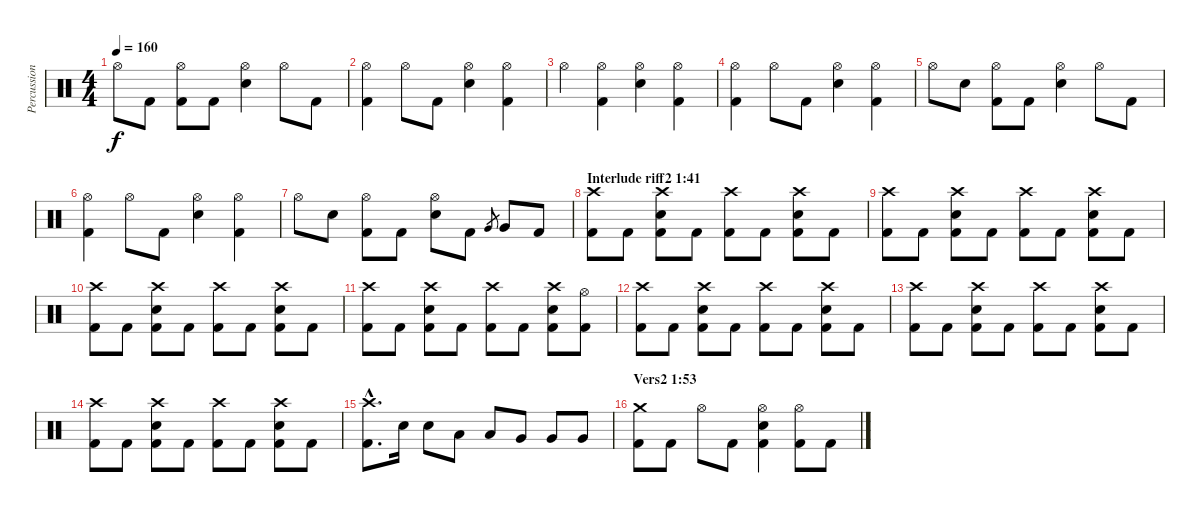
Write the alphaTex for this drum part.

\track ("Percussion" "Percussion") {instrument percussion}
\staff {score}
\articulation defaults
\ts (4 4)
\tempo 160
\clef neutral
\ks c "Hi-Hat (open)".8{dy f} "Kick (hit) 2".8
("Hi-Hat (open)" "Kick (hit) 2").8 "Kick (hit) 2".8 ("Hi-Hat (open)" "Snare (hit) 2").4 "Hi-Hat (open)".8 "Kick (hit) 2".8 |
("Hi-Hat (open)" "Kick (hit) 2").4 "Hi-Hat (open)".8 "Kick (hit) 2".8 ("Hi-Hat (open)" "Snare (hit) 2").4 ("Hi-Hat (open)" "Kick (hit) 2").4 |
"Hi-Hat (open)".4 ("Hi-Hat (open)" "Kick (hit) 2").4 ("Hi-Hat (open)" "Snare (hit) 2").4 ("Hi-Hat (open)" "Kick (hit) 2").4 |
("Hi-Hat (open)" "Kick (hit) 2").4 "Hi-Hat (open)".8 "Kick (hit) 2".8 ("Hi-Hat (open)" "Snare (hit) 2").4 ("Hi-Hat (open)" "Kick (hit) 2").4 |
"Hi-Hat (open)".8 "Snare (hit) 2".8 ("Hi-Hat (open)" "Kick (hit) 2").8 "Kick (hit) 2".8 ("Hi-Hat (open)" "Snare (hit) 2").4 "Hi-Hat (open)".8 "Kick (hit) 2".8 |
("Hi-Hat (open)" "Kick (hit) 2").4 "Hi-Hat (open)".8 "Kick (hit) 2".8 ("Hi-Hat (open)" "Snare (hit) 2").4 ("Hi-Hat (open)" "Kick (hit) 2").4 |
"Hi-Hat (open)".8 "Snare (hit) 2".8 ("Hi-Hat (open)" "Kick (hit) 2").8 "Kick (hit) 2".8 ("Hi-Hat (open)" "Snare (hit) 2").8 "Kick (hit) 2".8 "Very Low Tom (hit)".8{gr} "Very Low Tom (hit)".8 "Kick (hit) 2".8 |
\section ("" "Interlude riff2 1:41")
("Crash high (hit)" "Kick (hit) 2").8 "Kick (hit) 2".8 ("Crash high (hit)" "Snare (hit) 2" "Kick (hit) 2").8 "Kick (hit) 2".8 ("Crash high (hit)" "Kick (hit) 2").8 "Kick (hit) 2".8 ("Crash high (hit)" "Snare (hit) 2" "Kick (hit) 2").8 "Kick (hit) 2".8 |
("Crash high (hit)" "Kick (hit) 2").8 "Kick (hit) 2".8 ("Crash high (hit)" "Snare (hit) 2" "Kick (hit) 2").8 "Kick (hit) 2".8 ("Crash high (hit)" "Kick (hit) 2").8 "Kick (hit) 2".8 ("Crash high (hit)" "Snare (hit) 2" "Kick (hit) 2").8 "Kick (hit) 2".8 |
("Crash high (hit)" "Kick (hit) 2").8 "Kick (hit) 2".8 ("Crash high (hit)" "Snare (hit) 2" "Kick (hit) 2").8 "Kick (hit) 2".8 ("Crash high (hit)" "Kick (hit) 2").8 "Kick (hit) 2".8 ("Crash high (hit)" "Snare (hit) 2" "Kick (hit) 2").8 "Kick (hit) 2".8 |
("Crash high (hit)" "Kick (hit) 2").8 "Kick (hit) 2".8 ("Crash high (hit)" "Snare (hit) 2" "Kick (hit) 2").8 "Kick (hit) 2".8 ("Crash high (hit)" "Kick (hit) 2").8 "Kick (hit) 2".8 ("Crash high (hit)" "Snare (hit) 2" "Kick (hit) 2").8 ("Hi-Hat (open)" "Kick (hit) 2").8 |
("Crash high (hit)" "Kick (hit) 2").8 "Kick (hit) 2".8 ("Crash high (hit)" "Snare (hit) 2" "Kick (hit) 2").8 "Kick (hit) 2".8 ("Crash high (hit)" "Kick (hit) 2").8 "Kick (hit) 2".8 ("Crash high (hit)" "Snare (hit) 2" "Kick (hit) 2").8 "Kick (hit) 2".8 |
("Crash high (hit)" "Kick (hit) 2").8 "Kick (hit) 2".8 ("Crash high (hit)" "Snare (hit) 2" "Kick (hit) 2").8 "Kick (hit) 2".8 ("Crash high (hit)" "Kick (hit) 2").8 "Kick (hit) 2".8 ("Crash high (hit)" "Snare (hit) 2" "Kick (hit) 2").8 "Kick (hit) 2".8 |
("Crash high (hit)" "Kick (hit) 2").8 "Kick (hit) 2".8 ("Crash high (hit)" "Snare (hit) 2" "Kick (hit) 2").8 "Kick (hit) 2".8 ("Crash high (hit)" "Kick (hit) 2").8 "Kick (hit) 2".8 ("Crash high (hit)" "Snare (hit) 2" "Kick (hit) 2").8 "Kick (hit) 2".8 |
("Crash high (hit)"{hac} "Kick (hit) 2"{hac}).8{d} "Snare (hit) 2".16 "Snare (hit) 2".8 "Low Tom (hit)".8 "Low Tom (hit)".8 "Very Low Tom (hit)".8 "Very Low Tom (hit)".8 "Very Low Tom (hit)".8 |
\section ("" "Vers2 1:53")
("Crash medium (hit)" "Kick (hit) 2").8 "Kick (hit) 2".8 "Hi-Hat (open)".8 "Kick (hit) 2".8 ("Hi-Hat (open)" "Snare (hit) 2" "Kick (hit) 2").4 ("Hi-Hat (open)" "Kick (hit) 2").8 "Kick (hit) 2".8
